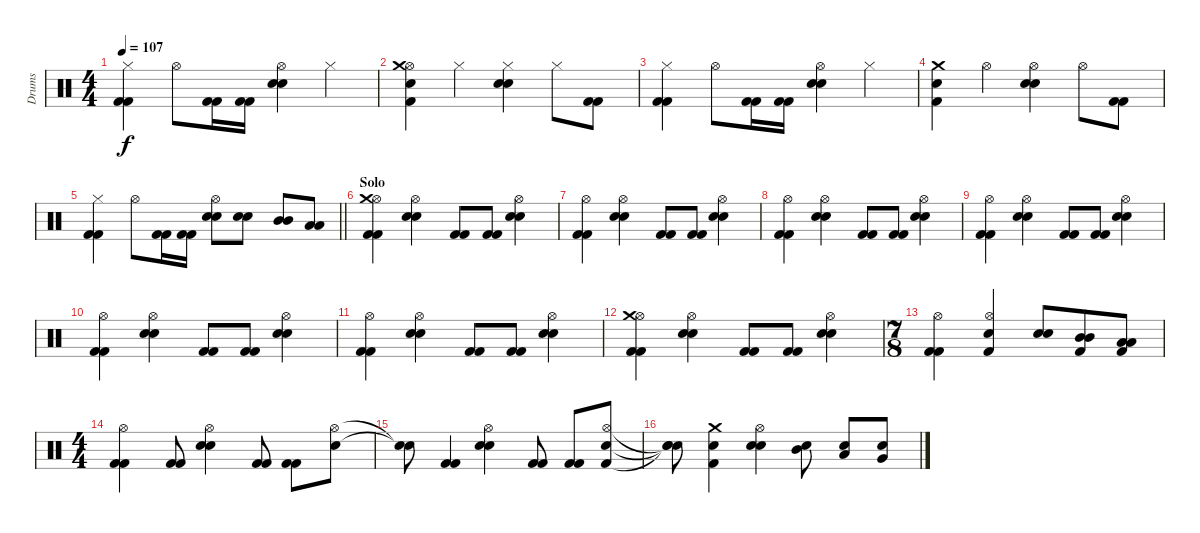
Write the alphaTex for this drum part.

\track ("Drums" "Drums") {instrument percussion}
\staff {score}
\articulation defaults
\ts (4 4)
\tempo 107
\clef neutral
\ks c
("Kick (hit) 2" "Kick (hit) 2" "Hi-Hat (closed)").4{dy f} "Hi-Hat (open)".8 ("Kick (hit) 2" "Kick (hit) 2").16 ("Kick (hit) 2" "Kick (hit) 2").16 ("Snare (hit) 2" "Snare (hit) 2" "Hi-Hat (open)").4 "Hi-Hat (closed)".4 |
("Kick (hit) 2" "Snare (hit) 2" "Hi-Hat (open)" "Crash medium (hit)").4 "Hi-Hat (closed)".4 ("Snare (hit) 2" "Snare (hit) 2" "Hi-Hat (closed)").4 "Hi-Hat (closed)".8 ("Kick (hit) 2" "Kick (hit) 2").8 |
("Kick (hit) 2" "Kick (hit) 2" "Hi-Hat (closed)").4 "Hi-Hat (open)".8 ("Kick (hit) 2" "Kick (hit) 2").16 ("Kick (hit) 2" "Kick (hit) 2").16 ("Snare (hit) 2" "Snare (hit) 2" "Hi-Hat (open)").4 "Hi-Hat (closed)".4 |
("Kick (hit) 2" "Snare (hit) 2" "Crash medium (hit)").4 "Hi-Hat (open)".4 ("Snare (hit) 2" "Snare (hit) 2" "Hi-Hat (open)").4 "Hi-Hat (open)".8 ("Kick (hit) 2" "Kick (hit) 2").8 |
\barLineRight lightlight
("Kick (hit) 2" "Kick (hit) 2" "Hi-Hat (closed)").4 "Hi-Hat (open)".8 ("Kick (hit) 2" "Kick (hit) 2").16 ("Kick (hit) 2" "Kick (hit) 2").16 ("Snare (hit) 2" "Snare (hit) 2" "Hi-Hat (open)").8 ("Snare (hit) 2" "Snare (hit) 2").8 ("Mid Tom (hit)" "Mid Tom (hit)").8 ("Low Tom (hit)" "Low Tom (hit)").8 |
\section ("" "Solo")
("Kick (hit) 2" "Kick (hit) 2" "Hi-Hat (open)" "Crash medium (hit)").4 ("Snare (hit) 2" "Snare (hit) 2" "Hi-Hat (open)").4 ("Kick (hit) 2" "Kick (hit) 2").8 ("Kick (hit) 2" "Kick (hit) 2").8 ("Snare (hit) 2" "Snare (hit) 2" "Hi-Hat (open)").4 |
("Kick (hit) 2" "Kick (hit) 2" "Hi-Hat (open)").4 ("Snare (hit) 2" "Snare (hit) 2" "Hi-Hat (open)").4 ("Kick (hit) 2" "Kick (hit) 2").8 ("Kick (hit) 2" "Kick (hit) 2").8 ("Snare (hit) 2" "Snare (hit) 2" "Hi-Hat (open)").4 |
("Kick (hit) 2" "Kick (hit) 2" "Hi-Hat (open)").4 ("Snare (hit) 2" "Snare (hit) 2" "Hi-Hat (open)").4 ("Kick (hit) 2" "Kick (hit) 2").8 ("Kick (hit) 2" "Kick (hit) 2").8 ("Snare (hit) 2" "Snare (hit) 2" "Hi-Hat (open)").4 |
("Kick (hit) 2" "Kick (hit) 2" "Hi-Hat (open)").4 ("Snare (hit) 2" "Snare (hit) 2" "Hi-Hat (open)").4 ("Kick (hit) 2" "Kick (hit) 2").8 ("Kick (hit) 2" "Kick (hit) 2").8 ("Snare (hit) 2" "Snare (hit) 2" "Hi-Hat (open)").4 |
("Kick (hit) 2" "Kick (hit) 2" "Hi-Hat (open)").4 ("Snare (hit) 2" "Snare (hit) 2" "Hi-Hat (open)").4 ("Kick (hit) 2" "Kick (hit) 2").8 ("Kick (hit) 2" "Kick (hit) 2").8 ("Snare (hit) 2" "Snare (hit) 2" "Hi-Hat (open)").4 |
("Kick (hit) 2" "Kick (hit) 2" "Hi-Hat (open)").4 ("Snare (hit) 2" "Snare (hit) 2" "Hi-Hat (open)").4 ("Kick (hit) 2" "Kick (hit) 2").8 ("Kick (hit) 2" "Kick (hit) 2").8 ("Snare (hit) 2" "Snare (hit) 2" "Hi-Hat (open)").4 |
("Kick (hit) 2" "Kick (hit) 2" "Hi-Hat (open)" "Crash medium (hit)").4 ("Snare (hit) 2" "Snare (hit) 2" "Hi-Hat (open)").4 ("Kick (hit) 2" "Kick (hit) 2").8 ("Kick (hit) 2" "Kick (hit) 2").8 ("Snare (hit) 2" "Snare (hit) 2" "Hi-Hat (open)").4 |
\ts (7 8)
("Kick (hit) 2" "Kick (hit) 2" "Hi-Hat (open)").4 ("Kick (hit) 2" "Snare (hit) 2" "Hi-Hat (open)").4 ("Snare (hit) 2" "Snare (hit) 2").8 ("Kick (hit) 2" "Mid Tom (hit)" "Mid Tom (hit)").8 ("Kick (hit) 2" "Low Tom (hit)" "Low Tom (hit)").8 |
\ts (4 4)
("Kick (hit) 2" "Kick (hit) 2" "Hi-Hat (open)").4 ("Kick (hit) 2" "Kick (hit) 2").8 ("Snare (hit) 2" "Snare (hit) 2" "Hi-Hat (open)").4 ("Kick (hit) 2" "Kick (hit) 2").8 ("Kick (hit) 2" "Kick (hit) 2").8 ("Snare (hit) 2" "Hi-Hat (open)").8 |
("Snare (hit)"{t} "Snare (hit)"{t}).8 ("Kick (hit) 2" "Kick (hit) 2").4 ("Snare (hit) 2" "Snare (hit) 2" "Hi-Hat (open)").4 ("Kick (hit) 2" "Kick (hit) 2").8 ("Kick (hit) 2" "Kick (hit) 2").8 ("Kick (hit) 2" "Snare (hit) 2" "Hi-Hat (open)").8 |
("Snare (hit)"{t} "Snare (hit)"{t} "Snare (hit)"{t}).8 ("Kick (hit) 2" "Snare (hit) 2" "Crash medium (hit)").4 ("Snare (hit) 2" "Snare (hit) 2" "Hi-Hat (open)").4 ("Mid Tom (hit)" "Snare (hit) 2").8 ("Low Tom (hit)" "Snare (hit) 2").8 ("Very Low Tom (hit)" "Snare (hit) 2").8
